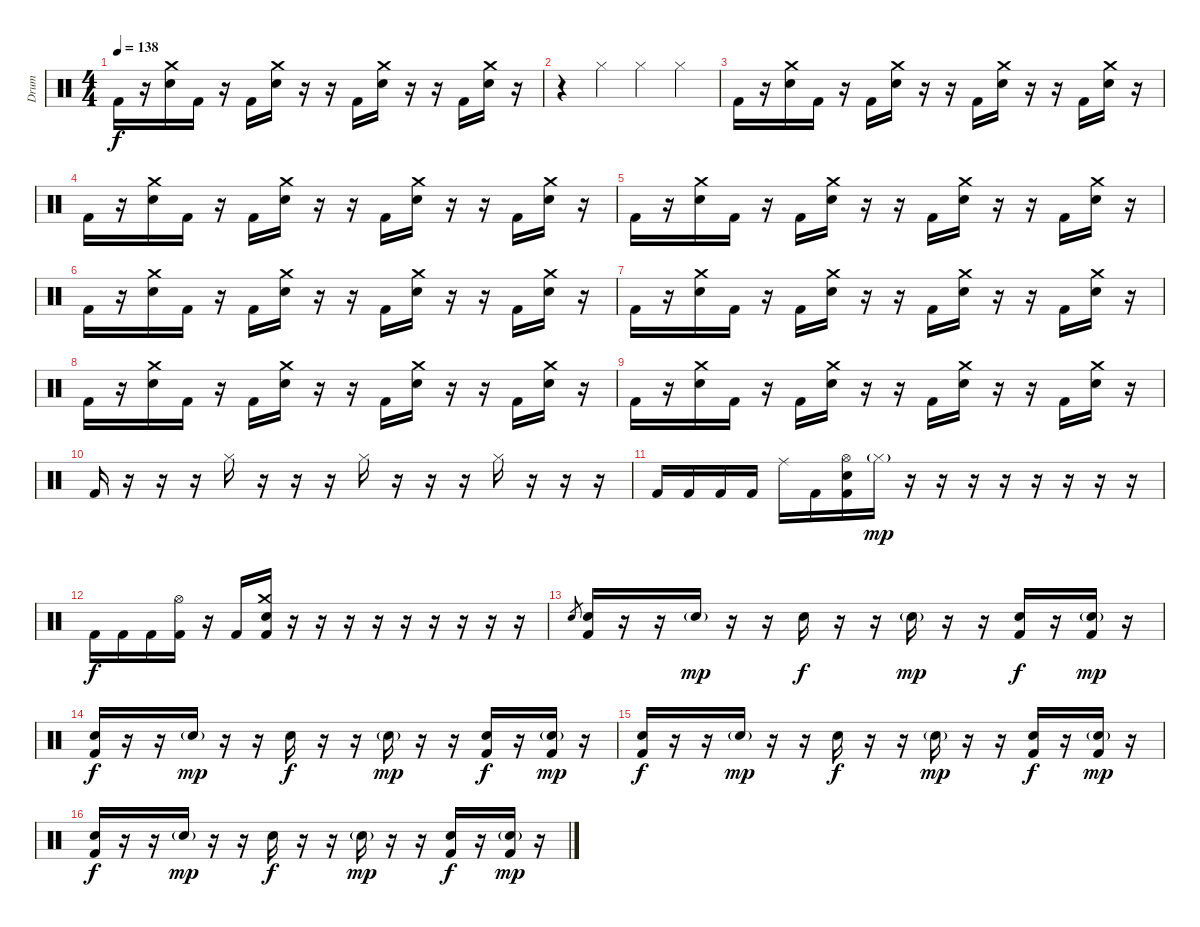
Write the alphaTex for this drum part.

\track ("Drum" "Drum") {instrument percussion}
\staff {score}
\articulation defaults
\ts (4 4)
\tempo 138
\clef neutral
\ks c "Kick (hit) 2".16{dy f}
r.16 ("Crash medium (hit)" "Electric Snare (hit)").16 "Kick (hit) 2".16 r.16 "Kick (hit) 2".16 ("Crash medium (hit)" "Electric Snare (hit)").16 r.16 r.16 "Kick (hit) 2".16 ("Crash medium (hit)" "Electric Snare (hit)").16 r.16 r.16 "Kick (hit) 2".16 ("Crash medium (hit)" "Electric Snare (hit)").16 r.16 |
r.4 "Hi-Hat (closed)".4 "Hi-Hat (closed)".4 "Hi-Hat (closed)".4 |
"Kick (hit) 2".16 r.16 ("Crash medium (hit)" "Electric Snare (hit)").16 "Kick (hit) 2".16 r.16 "Kick (hit) 2".16 ("Crash medium (hit)" "Electric Snare (hit)").16 r.16 r.16 "Kick (hit) 2".16 ("Crash medium (hit)" "Electric Snare (hit)").16 r.16 r.16 "Kick (hit) 2".16 ("Crash medium (hit)" "Electric Snare (hit)").16 r.16 |
"Kick (hit) 2".16 r.16 ("Crash medium (hit)" "Electric Snare (hit)").16 "Kick (hit) 2".16 r.16 "Kick (hit) 2".16 ("Crash medium (hit)" "Electric Snare (hit)").16 r.16 r.16 "Kick (hit) 2".16 ("Crash medium (hit)" "Electric Snare (hit)").16 r.16 r.16 "Kick (hit) 2".16 ("Crash medium (hit)" "Electric Snare (hit)").16 r.16 |
"Kick (hit) 2".16 r.16 ("Crash medium (hit)" "Electric Snare (hit)").16 "Kick (hit) 2".16 r.16 "Kick (hit) 2".16 ("Crash medium (hit)" "Electric Snare (hit)").16 r.16 r.16 "Kick (hit) 2".16 ("Crash medium (hit)" "Electric Snare (hit)").16 r.16 r.16 "Kick (hit) 2".16 ("Crash medium (hit)" "Electric Snare (hit)").16 r.16 |
"Kick (hit) 2".16 r.16 ("Crash medium (hit)" "Electric Snare (hit)").16 "Kick (hit) 2".16 r.16 "Kick (hit) 2".16 ("Crash medium (hit)" "Electric Snare (hit)").16 r.16 r.16 "Kick (hit) 2".16 ("Crash medium (hit)" "Electric Snare (hit)").16 r.16 r.16 "Kick (hit) 2".16 ("Crash medium (hit)" "Electric Snare (hit)").16 r.16 |
"Kick (hit) 2".16 r.16 ("Crash medium (hit)" "Electric Snare (hit)").16 "Kick (hit) 2".16 r.16 "Kick (hit) 2".16 ("Crash medium (hit)" "Electric Snare (hit)").16 r.16 r.16 "Kick (hit) 2".16 ("Crash medium (hit)" "Electric Snare (hit)").16 r.16 r.16 "Kick (hit) 2".16 ("Crash medium (hit)" "Electric Snare (hit)").16 r.16 |
"Kick (hit) 2".16 r.16 ("Crash medium (hit)" "Electric Snare (hit)").16 "Kick (hit) 2".16 r.16 "Kick (hit) 2".16 ("Crash medium (hit)" "Electric Snare (hit)").16 r.16 r.16 "Kick (hit) 2".16 ("Crash medium (hit)" "Electric Snare (hit)").16 r.16 r.16 "Kick (hit) 2".16 ("Crash medium (hit)" "Electric Snare (hit)").16 r.16 |
"Kick (hit) 2".16 r.16 ("Crash medium (hit)" "Electric Snare (hit)").16 "Kick (hit) 2".16 r.16 "Kick (hit) 2".16 ("Crash medium (hit)" "Electric Snare (hit)").16 r.16 r.16 "Kick (hit) 2".16 ("Crash medium (hit)" "Electric Snare (hit)").16 r.16 r.16 "Kick (hit) 2".16 ("Crash medium (hit)" "Electric Snare (hit)").16 r.16 |
"Kick (hit) 2".16 r.16 r.16 r.16 "Hi-Hat (closed)".16 r.16 r.16 r.16 "Hi-Hat (closed)".16 r.16 r.16 r.16 "Hi-Hat (closed)".16 r.16 r.16 r.16 |
"Kick (hit) 2".16 "Kick (hit) 2".16 "Kick (hit) 2".16 "Kick (hit) 2".16 "Ride (middle)".16 "Kick (hit) 2".16 ("Hi-Hat (open)" "Electric Snare (hit)" "Kick (hit) 2").16 "Hi-Hat (closed)"{g}.16{dy mp} r.16 r.16 r.16 r.16 r.16 r.16 r.16 r.16 |
"Kick (hit) 2".16{dy f} "Kick (hit) 2".16 "Kick (hit) 2".16 ("Hi-Hat (open)" "Kick (hit) 2").16 r.16 "Kick (hit) 2".16 ("Crash medium (hit)" "Electric Snare (hit)" "Kick (hit) 2").16 r.16 r.16 r.16 r.16 r.16 r.16 r.16 r.16 r.16 |
"Electric Snare (hit)".8{gr} ("Electric Snare (hit)" "Kick (hit) 2").16 r.16 r.16 "Electric Snare (hit)"{g}.16{dy mp} r.16 r.16 "Electric Snare (hit)".16{dy f} r.16 r.16 "Electric Snare (hit)"{g}.16{dy mp} r.16 r.16 ("Electric Snare (hit)" "Kick (hit) 2").16{dy f} r.16 ("Electric Snare (hit)"{g} "Kick (hit) 2").16{dy mp} r.16 |
("Electric Snare (hit)" "Kick (hit) 2").16{dy f} r.16 r.16 "Electric Snare (hit)"{g}.16{dy mp} r.16 r.16 "Electric Snare (hit)".16{dy f} r.16 r.16 "Electric Snare (hit)"{g}.16{dy mp} r.16 r.16 ("Electric Snare (hit)" "Kick (hit) 2").16{dy f} r.16 ("Electric Snare (hit)"{g} "Kick (hit) 2").16{dy mp} r.16 |
("Electric Snare (hit)" "Kick (hit) 2").16{dy f} r.16 r.16 "Electric Snare (hit)"{g}.16{dy mp} r.16 r.16 "Electric Snare (hit)".16{dy f} r.16 r.16 "Electric Snare (hit)"{g}.16{dy mp} r.16 r.16 ("Electric Snare (hit)" "Kick (hit) 2").16{dy f} r.16 ("Electric Snare (hit)"{g} "Kick (hit) 2").16{dy mp} r.16 |
("Electric Snare (hit)" "Kick (hit) 2").16{dy f} r.16 r.16 "Electric Snare (hit)"{g}.16{dy mp} r.16 r.16 "Electric Snare (hit)".16{dy f} r.16 r.16 "Electric Snare (hit)"{g}.16{dy mp} r.16 r.16 ("Electric Snare (hit)" "Kick (hit) 2").16{dy f} r.16 ("Electric Snare (hit)"{g} "Kick (hit) 2").16{dy mp} r.16
